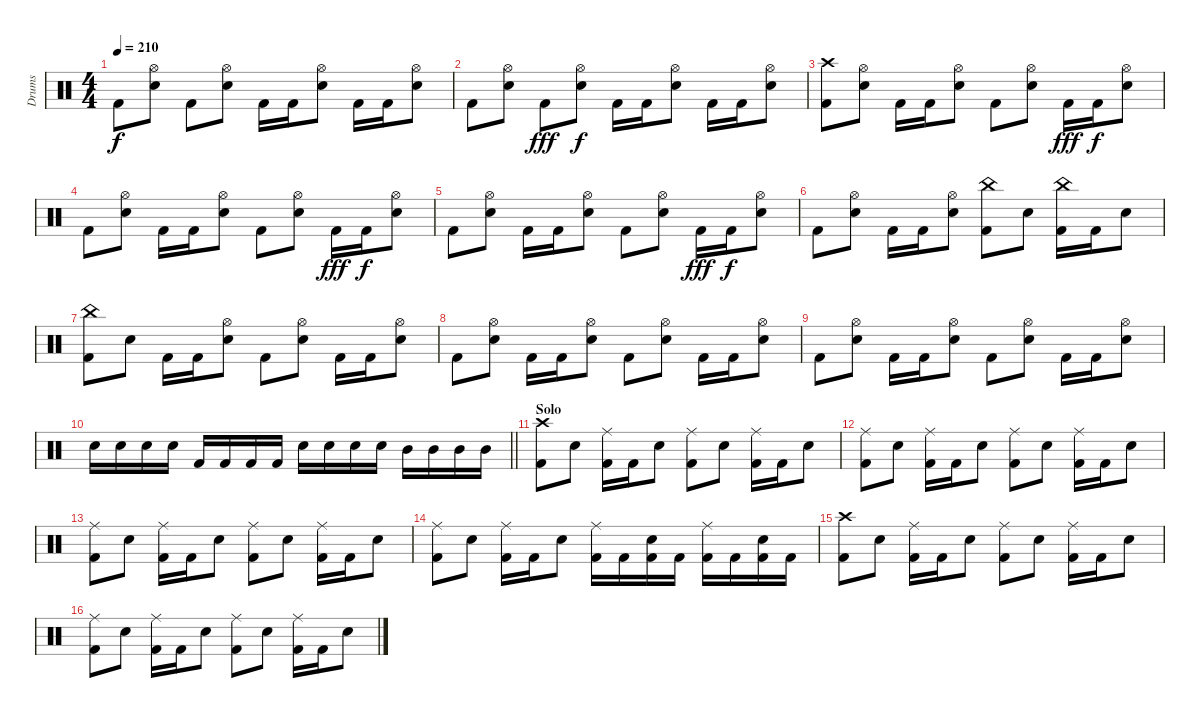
\track ("Drums" "Drums") {instrument percussion}
\staff {score}
\articulation defaults
\ts (4 4)
\tempo 210
\clef neutral
\ks c "Kick (hit) 2".8{dy f}
("Hi-Hat (open)" "Snare (hit) 2").8 "Kick (hit) 2".8 ("Hi-Hat (open)" "Snare (hit) 2").8 "Kick (hit) 2".16 "Kick (hit) 2".16 ("Hi-Hat (open)" "Snare (hit) 2").8 "Kick (hit) 2".16 "Kick (hit) 2".16 ("Hi-Hat (open)" "Snare (hit) 2").8 |
"Kick (hit) 2".8 ("Hi-Hat (open)" "Snare (hit) 2").8 "Kick (hit) 2".8{dy fff} ("Hi-Hat (open)" "Snare (hit) 2").8{dy f} "Kick (hit) 2".16 "Kick (hit) 2".16 ("Hi-Hat (open)" "Snare (hit) 2").8 "Kick (hit) 2".16 "Kick (hit) 2".16 ("Hi-Hat (open)" "Snare (hit) 2").8 |
("Crash high (hit)" "Kick (hit) 2").8 ("Hi-Hat (open)" "Snare (hit) 2").8 "Kick (hit) 2".16 "Kick (hit) 2".16 ("Hi-Hat (open)" "Snare (hit) 2").8 "Kick (hit) 2".8 ("Hi-Hat (open)" "Snare (hit) 2").8 "Kick (hit) 2".16{dy fff} "Kick (hit) 2".16{dy f} ("Hi-Hat (open)" "Snare (hit) 2").8 |
"Kick (hit) 2".8 ("Hi-Hat (open)" "Snare (hit) 2").8 "Kick (hit) 2".16 "Kick (hit) 2".16 ("Hi-Hat (open)" "Snare (hit) 2").8 "Kick (hit) 2".8 ("Hi-Hat (open)" "Snare (hit) 2").8 "Kick (hit) 2".16{dy fff} "Kick (hit) 2".16{dy f} ("Hi-Hat (open)" "Snare (hit) 2").8 |
"Kick (hit) 2".8 ("Hi-Hat (open)" "Snare (hit) 2").8 "Kick (hit) 2".16 "Kick (hit) 2".16 ("Hi-Hat (open)" "Snare (hit) 2").8 "Kick (hit) 2".8 ("Hi-Hat (open)" "Snare (hit) 2").8 "Kick (hit) 2".16{dy fff} "Kick (hit) 2".16{dy f} ("Hi-Hat (open)" "Snare (hit) 2").8 |
"Kick (hit) 2".8 ("Hi-Hat (open)" "Snare (hit) 2").8 "Kick (hit) 2".16 "Kick (hit) 2".16 ("Hi-Hat (open)" "Snare (hit) 2").8 ("China (hit)" "Kick (hit) 2").8 "Snare (hit) 2".8 ("China (hit)" "Kick (hit) 2").16 "Kick (hit) 2".16 "Snare (hit) 2".8 |
("China (hit)" "Kick (hit) 2").8 "Snare (hit) 2".8 "Kick (hit) 2".16 "Kick (hit) 2".16 ("Hi-Hat (open)" "Snare (hit) 2").8 "Kick (hit) 2".8 ("Hi-Hat (open)" "Snare (hit) 2").8 "Kick (hit) 2".16 "Kick (hit) 2".16 ("Hi-Hat (open)" "Snare (hit) 2").8 |
"Kick (hit) 2".8 ("Hi-Hat (open)" "Snare (hit) 2").8 "Kick (hit) 2".16 "Kick (hit) 2".16 ("Hi-Hat (open)" "Snare (hit) 2").8 "Kick (hit) 2".8 ("Hi-Hat (open)" "Snare (hit) 2").8 "Kick (hit) 2".16 "Kick (hit) 2".16 ("Hi-Hat (open)" "Snare (hit) 2").8 |
"Kick (hit) 2".8 ("Hi-Hat (open)" "Snare (hit) 2").8 "Kick (hit) 2".16 "Kick (hit) 2".16 ("Hi-Hat (open)" "Snare (hit) 2").8 "Kick (hit) 2".8 ("Hi-Hat (open)" "Snare (hit) 2").8 "Kick (hit) 2".16 "Kick (hit) 2".16 ("Hi-Hat (open)" "Snare (hit) 2").8 |
\barLineRight lightlight "Snare (hit) 2".16 "Snare (hit) 2".16 "Snare (hit) 2".16 "Snare (hit) 2".16 "Kick (hit) 2".16 "Kick (hit) 2".16 "Kick (hit) 2".16 "Kick (hit) 2".16 "Snare (hit) 2".16 "Snare (hit) 2".16 "Snare (hit) 2".16 "Snare (hit) 2".16 "Mid Tom (hit)".16 "Mid Tom (hit)".16 "Mid Tom (hit)".16 "Mid Tom (hit)".16
|
\section ("" "Solo")
("Crash high (hit)" "Kick (hit) 2").8 "Snare (hit) 2".8 ("Ride (middle)" "Kick (hit) 2").16 "Kick (hit) 2".16 "Snare (hit) 2".8 ("Ride (middle)" "Kick (hit) 2").8 "Snare (hit) 2".8 ("Ride (middle)" "Kick (hit) 2").16 "Kick (hit) 2".16 "Snare (hit) 2".8 |
("Ride (middle)" "Kick (hit) 2").8 "Snare (hit) 2".8 ("Ride (middle)" "Kick (hit) 2").16 "Kick (hit) 2".16 "Snare (hit) 2".8 ("Ride (middle)" "Kick (hit) 2").8 "Snare (hit) 2".8 ("Ride (middle)" "Kick (hit) 2").16 "Kick (hit) 2".16 "Snare (hit) 2".8 |
("Ride (middle)" "Kick (hit) 2").8 "Snare (hit) 2".8 ("Ride (middle)" "Kick (hit) 2").16 "Kick (hit) 2".16 "Snare (hit) 2".8 ("Ride (middle)" "Kick (hit) 2").8 "Snare (hit) 2".8 ("Ride (middle)" "Kick (hit) 2").16 "Kick (hit) 2".16 "Snare (hit) 2".8 |
("Ride (middle)" "Kick (hit) 2").8 "Snare (hit) 2".8 ("Ride (middle)" "Kick (hit) 2").16 "Kick (hit) 2".16 "Snare (hit) 2".8 ("Ride (middle)" "Kick (hit) 2").16 "Kick (hit) 2".16 ("Snare (hit) 2" "Kick (hit) 2").16 "Kick (hit) 2".16 ("Ride (middle)" "Kick (hit) 2").16 "Kick (hit) 2".16 ("Snare (hit) 2" "Kick (hit) 2").16 "Kick (hit) 2".16 |
("Crash high (hit)" "Kick (hit) 2").8 "Snare (hit) 2".8 ("Ride (middle)" "Kick (hit) 2").16 "Kick (hit) 2".16 "Snare (hit) 2".8 ("Ride (middle)" "Kick (hit) 2").8 "Snare (hit) 2".8 ("Ride (middle)" "Kick (hit) 2").16 "Kick (hit) 2".16 "Snare (hit) 2".8 |
("Ride (middle)" "Kick (hit) 2").8 "Snare (hit) 2".8 ("Ride (middle)" "Kick (hit) 2").16 "Kick (hit) 2".16 "Snare (hit) 2".8 ("Ride (middle)" "Kick (hit) 2").8 "Snare (hit) 2".8 ("Ride (middle)" "Kick (hit) 2").16 "Kick (hit) 2".16 "Snare (hit) 2".8
